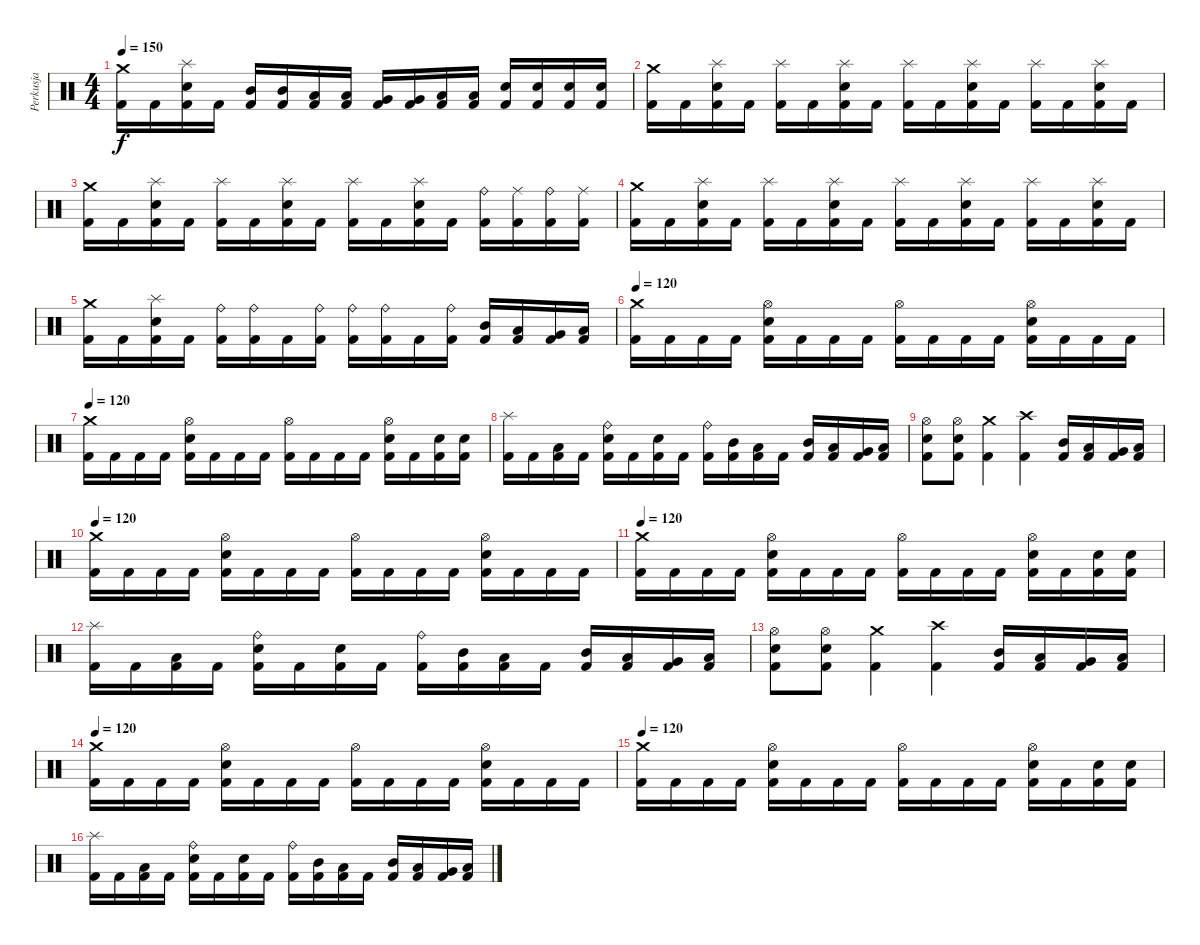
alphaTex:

\track ("Perkusja" "Perkusja") {instrument percussion}
\staff {score}
\articulation defaults
\ts (4 4)
\tempo 150
\clef neutral
\ks c
("Crash medium (hit)" "Kick (hit) 2").16{dy f} "Kick (hit) 2".16 ("Splash (hit)" "Electric Snare (hit)" "Kick (hit) 2").16 "Kick (hit) 2".16 ("Mid Tom (hit)" "Kick (hit) 2").16 ("Mid Tom (hit)" "Kick (hit) 2").16 ("Low Tom (hit)" "Kick (hit) 2").16 ("Low Tom (hit)" "Kick (hit) 2").16 ("Very Low Tom (hit)" "Kick (hit) 2").16 ("Very Low Tom (hit)" "Kick (hit) 2").16 ("Low Floor Tom (hit)" "Kick (hit) 2").16 ("Low Floor Tom (hit)" "Kick (hit) 2").16 ("Electric Snare (hit)" "Kick (hit) 2").16 ("Electric Snare (hit)" "Kick (hit) 2").16 ("Electric Snare (hit)" "Kick (hit) 2").16 ("Electric Snare (hit)" "Kick (hit) 2").16 |
("Crash medium (hit)" "Kick (hit) 2").16 "Kick (hit) 2".16 ("Splash (hit)" "Electric Snare (hit)" "Kick (hit) 2").16 "Kick (hit) 2".16 ("Splash (hit)" "Kick (hit) 2").16 "Kick (hit) 2".16 ("Splash (hit)" "Electric Snare (hit)" "Kick (hit) 2").16 "Kick (hit) 2".16 ("Splash (hit)" "Kick (hit) 2").16 "Kick (hit) 2".16 ("Splash (hit)" "Electric Snare (hit)" "Kick (hit) 2").16 "Kick (hit) 2".16 ("Splash (hit)" "Kick (hit) 2").16 "Kick (hit) 2".16 ("Splash (hit)" "Electric Snare (hit)" "Kick (hit) 2").16 "Kick (hit) 2".16 |
("Crash medium (hit)" "Kick (hit) 2").16 "Kick (hit) 2".16 ("Splash (hit)" "Electric Snare (hit)" "Kick (hit) 2").16 "Kick (hit) 2".16 ("Splash (hit)" "Kick (hit) 2").16 "Kick (hit) 2".16 ("Splash (hit)" "Electric Snare (hit)" "Kick (hit) 2").16 "Kick (hit) 2".16 ("Splash (hit)" "Kick (hit) 2").16 "Kick (hit) 2".16 ("Splash (hit)" "Electric Snare (hit)" "Kick (hit) 2").16 "Kick (hit) 2".16 ("Ride (bell)" "Kick (hit) 2").16 ("Ride (middle)" "Kick (hit) 2").16 ("Ride (bell)" "Kick (hit) 2").16 ("Ride (middle)" "Kick (hit) 2").16 |
("Crash medium (hit)" "Kick (hit) 2").16 "Kick (hit) 2".16 ("Splash (hit)" "Electric Snare (hit)" "Kick (hit) 2").16 "Kick (hit) 2".16 ("Splash (hit)" "Kick (hit) 2").16 "Kick (hit) 2".16 ("Splash (hit)" "Electric Snare (hit)" "Kick (hit) 2").16 "Kick (hit) 2".16 ("Splash (hit)" "Kick (hit) 2").16 "Kick (hit) 2".16 ("Splash (hit)" "Electric Snare (hit)" "Kick (hit) 2").16 "Kick (hit) 2".16 ("Splash (hit)" "Kick (hit) 2").16 "Kick (hit) 2".16 ("Splash (hit)" "Electric Snare (hit)" "Kick (hit) 2").16 "Kick (hit) 2".16 |
("Crash medium (hit)" "Kick (hit) 2").16 "Kick (hit) 2".16 ("Splash (hit)" "Electric Snare (hit)" "Kick (hit) 2").16 "Kick (hit) 2".16 ("Ride (bell)" "Kick (hit) 2").16 ("Ride (bell)" "Kick (hit) 2").16 "Kick (hit) 2".16 ("Ride (bell)" "Kick (hit) 2").16 ("Ride (bell)" "Kick (hit) 2").16 ("Ride (bell)" "Kick (hit) 2").16 "Kick (hit) 2".16 ("Ride (bell)" "Kick (hit) 2").16 ("Mid Tom (hit)" "Kick (hit) 2").16 ("Low Tom (hit)" "Kick (hit) 2").16 ("Very Low Tom (hit)" "Kick (hit) 2").16 ("Low Floor Tom (hit)" "Kick (hit) 2").16 |
\tempo 120
("Crash medium (hit)" "Kick (hit) 2").16 "Kick (hit) 2".16 "Kick (hit) 2".16 "Kick (hit) 2".16 ("Hi-Hat (open)" "Electric Snare (hit)" "Kick (hit) 2").16 "Kick (hit) 2".16 "Kick (hit) 2".16 "Kick (hit) 2".16 ("Hi-Hat (open)" "Kick (hit) 2").16 "Kick (hit) 2".16 "Kick (hit) 2".16 "Kick (hit) 2".16 ("Hi-Hat (open)" "Electric Snare (hit)" "Kick (hit) 2").16 "Kick (hit) 2".16 "Kick (hit) 2".16 "Kick (hit) 2".16 |
\tempo 120
("Crash medium (hit)" "Kick (hit) 2").16 "Kick (hit) 2".16 "Kick (hit) 2".16 "Kick (hit) 2".16 ("Hi-Hat (open)" "Electric Snare (hit)" "Kick (hit) 2").16 "Kick (hit) 2".16 "Kick (hit) 2".16 "Kick (hit) 2".16 ("Hi-Hat (open)" "Kick (hit) 2").16 "Kick (hit) 2".16 "Kick (hit) 2".16 "Kick (hit) 2".16 ("Hi-Hat (open)" "Electric Snare (hit)" "Kick (hit) 2").16 "Kick (hit) 2".16 ("Electric Snare (hit)" "Kick (hit) 2").16 ("Electric Snare (hit)" "Kick (hit) 2").16 |
("Splash (hit)" "Kick (hit) 2").16 "Kick (hit) 2".16 ("Low Tom (hit)" "Kick (hit) 2").16 "Kick (hit) 2".16 ("Ride (bell)" "Electric Snare (hit)" "Kick (hit) 2").16 "Kick (hit) 2".16 ("Electric Snare (hit)" "Kick (hit) 2").16 "Kick (hit) 2".16 ("Ride (bell)" "Kick (hit) 2").16 ("Mid Tom (hit)" "Kick (hit) 2").16 ("Low Tom (hit)" "Kick (hit) 2").16 "Kick (hit) 2".16 ("Mid Tom (hit)" "Kick (hit) 2").16 ("Low Tom (hit)" "Kick (hit) 2").16 ("Very Low Tom (hit)" "Kick (hit) 2").16 ("Low Floor Tom (hit)" "Kick (hit) 2").16 |
("Kick (hit) 2" "Electric Snare (hit)" "Hi-Hat (open)").8 ("Kick (hit) 2" "Electric Snare (hit)" "Hi-Hat (open)").8 ("Crash medium (hit)" "Kick (hit) 2").4 ("Crash high (hit)" "Kick (hit) 2").4 ("Mid Tom (hit)" "Kick (hit) 2").16 ("Low Tom (hit)" "Kick (hit) 2").16 ("Very Low Tom (hit)" "Kick (hit) 2").16 ("Low Floor Tom (hit)" "Kick (hit) 2").16 |
\tempo 120
("Crash medium (hit)" "Kick (hit) 2").16 "Kick (hit) 2".16 "Kick (hit) 2".16 "Kick (hit) 2".16 ("Hi-Hat (open)" "Electric Snare (hit)" "Kick (hit) 2").16 "Kick (hit) 2".16 "Kick (hit) 2".16 "Kick (hit) 2".16 ("Hi-Hat (open)" "Kick (hit) 2").16 "Kick (hit) 2".16 "Kick (hit) 2".16 "Kick (hit) 2".16 ("Hi-Hat (open)" "Electric Snare (hit)" "Kick (hit) 2").16 "Kick (hit) 2".16 "Kick (hit) 2".16 "Kick (hit) 2".16 |
\tempo 120
("Crash medium (hit)" "Kick (hit) 2").16 "Kick (hit) 2".16 "Kick (hit) 2".16 "Kick (hit) 2".16 ("Hi-Hat (open)" "Electric Snare (hit)" "Kick (hit) 2").16 "Kick (hit) 2".16 "Kick (hit) 2".16 "Kick (hit) 2".16 ("Hi-Hat (open)" "Kick (hit) 2").16 "Kick (hit) 2".16 "Kick (hit) 2".16 "Kick (hit) 2".16 ("Hi-Hat (open)" "Electric Snare (hit)" "Kick (hit) 2").16 "Kick (hit) 2".16 ("Electric Snare (hit)" "Kick (hit) 2").16 ("Electric Snare (hit)" "Kick (hit) 2").16 |
("Splash (hit)" "Kick (hit) 2").16 "Kick (hit) 2".16 ("Low Tom (hit)" "Kick (hit) 2").16 "Kick (hit) 2".16 ("Ride (bell)" "Electric Snare (hit)" "Kick (hit) 2").16 "Kick (hit) 2".16 ("Electric Snare (hit)" "Kick (hit) 2").16 "Kick (hit) 2".16 ("Ride (bell)" "Kick (hit) 2").16 ("Mid Tom (hit)" "Kick (hit) 2").16 ("Low Tom (hit)" "Kick (hit) 2").16 "Kick (hit) 2".16 ("Mid Tom (hit)" "Kick (hit) 2").16 ("Low Tom (hit)" "Kick (hit) 2").16 ("Very Low Tom (hit)" "Kick (hit) 2").16 ("Low Floor Tom (hit)" "Kick (hit) 2").16 |
("Kick (hit) 2" "Electric Snare (hit)" "Hi-Hat (open)").8 ("Kick (hit) 2" "Electric Snare (hit)" "Hi-Hat (open)").8 ("Crash medium (hit)" "Kick (hit) 2").4 ("Crash high (hit)" "Kick (hit) 2").4 ("Mid Tom (hit)" "Kick (hit) 2").16 ("Low Tom (hit)" "Kick (hit) 2").16 ("Very Low Tom (hit)" "Kick (hit) 2").16 ("Low Floor Tom (hit)" "Kick (hit) 2").16 |
\tempo 120
("Crash medium (hit)" "Kick (hit) 2").16 "Kick (hit) 2".16 "Kick (hit) 2".16 "Kick (hit) 2".16 ("Hi-Hat (open)" "Electric Snare (hit)" "Kick (hit) 2").16 "Kick (hit) 2".16 "Kick (hit) 2".16 "Kick (hit) 2".16 ("Hi-Hat (open)" "Kick (hit) 2").16 "Kick (hit) 2".16 "Kick (hit) 2".16 "Kick (hit) 2".16 ("Hi-Hat (open)" "Electric Snare (hit)" "Kick (hit) 2").16 "Kick (hit) 2".16 "Kick (hit) 2".16 "Kick (hit) 2".16 |
\tempo 120
("Crash medium (hit)" "Kick (hit) 2").16 "Kick (hit) 2".16 "Kick (hit) 2".16 "Kick (hit) 2".16 ("Hi-Hat (open)" "Electric Snare (hit)" "Kick (hit) 2").16 "Kick (hit) 2".16 "Kick (hit) 2".16 "Kick (hit) 2".16 ("Hi-Hat (open)" "Kick (hit) 2").16 "Kick (hit) 2".16 "Kick (hit) 2".16 "Kick (hit) 2".16 ("Hi-Hat (open)" "Electric Snare (hit)" "Kick (hit) 2").16 "Kick (hit) 2".16 ("Electric Snare (hit)" "Kick (hit) 2").16 ("Electric Snare (hit)" "Kick (hit) 2").16 |
("Splash (hit)" "Kick (hit) 2").16 "Kick (hit) 2".16 ("Low Tom (hit)" "Kick (hit) 2").16 "Kick (hit) 2".16 ("Ride (bell)" "Electric Snare (hit)" "Kick (hit) 2").16 "Kick (hit) 2".16 ("Electric Snare (hit)" "Kick (hit) 2").16 "Kick (hit) 2".16 ("Ride (bell)" "Kick (hit) 2").16 ("Mid Tom (hit)" "Kick (hit) 2").16 ("Low Tom (hit)" "Kick (hit) 2").16 "Kick (hit) 2".16 ("Mid Tom (hit)" "Kick (hit) 2").16 ("Low Tom (hit)" "Kick (hit) 2").16 ("Very Low Tom (hit)" "Kick (hit) 2").16 ("Low Floor Tom (hit)" "Kick (hit) 2").16
